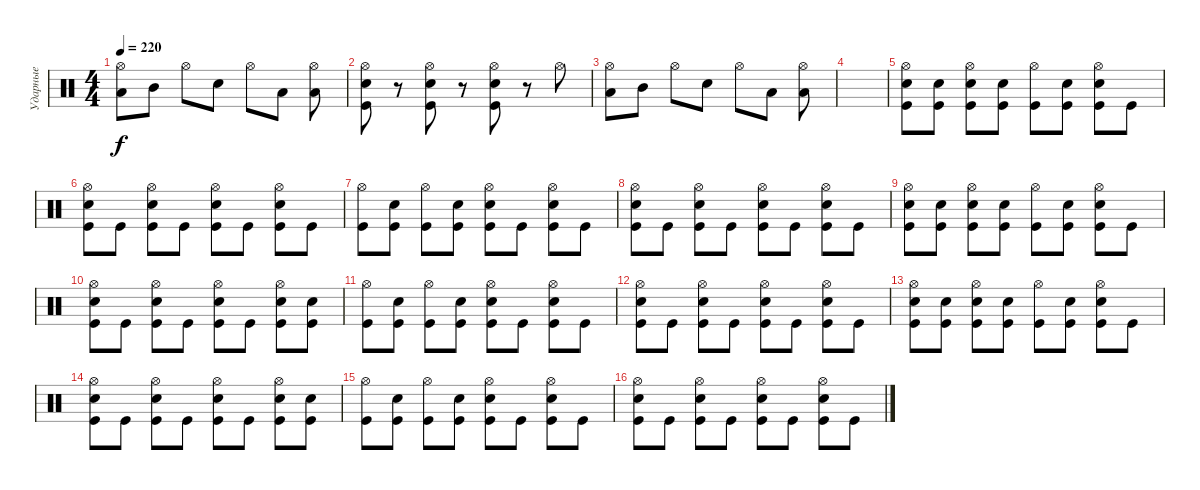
\track ("Ударные" "Ударные") {instrument percussion}
\staff {score}
\articulation defaults
\ts (4 4)
\tempo 220
\clef neutral
\ks c
("Hi-Hat (open)" "Low Tom (hit)").8{dy f} "Mid Tom (hit)".8 "Hi-Hat (open)".8 "Electric Snare (hit)".8 "Hi-Hat (open)".8 "Low Floor Tom (hit)".8 ("Hi-Hat (open)" "Low Tom (hit)").8 |
("Hi-Hat (open)" "Electric Snare (hit)" "Kick (hit)").8 r.8 ("Hi-Hat (open)" "Electric Snare (hit)" "Kick (hit)").8 r.8 ("Hi-Hat (open)" "Electric Snare (hit)" "Kick (hit)").8 r.8 "Hi-Hat (open)".8 |
("Hi-Hat (open)" "Low Tom (hit)").8 "Mid Tom (hit)".8 "Hi-Hat (open)".8 "Electric Snare (hit)".8 "Hi-Hat (open)".8 "Low Floor Tom (hit)".8 ("Hi-Hat (open)" "Low Tom (hit)").8 |
|
("Hi-Hat (open)" "Kick (hit)" "Electric Snare (hit)").8 ("Kick (hit)" "Electric Snare (hit)").8 ("Hi-Hat (open)" "Kick (hit)" "Electric Snare (hit)").8 ("Kick (hit)" "Electric Snare (hit)").8 ("Hi-Hat (open)" "Kick (hit)").8 ("Kick (hit)" "Electric Snare (hit)").8 ("Hi-Hat (open)" "Kick (hit)" "Electric Snare (hit)").8 "Kick (hit)".8 |
("Hi-Hat (open)" "Kick (hit)" "Electric Snare (hit)").8 "Kick (hit)".8 ("Hi-Hat (open)" "Kick (hit)" "Electric Snare (hit)").8 "Kick (hit)".8 ("Hi-Hat (open)" "Kick (hit)" "Electric Snare (hit)").8 "Kick (hit)".8 ("Hi-Hat (open)" "Kick (hit)" "Electric Snare (hit)").8 "Kick (hit)".8 |
("Hi-Hat (open)" "Kick (hit)").8 ("Kick (hit)" "Electric Snare (hit)").8 ("Hi-Hat (open)" "Kick (hit)").8 ("Kick (hit)" "Electric Snare (hit)").8 ("Hi-Hat (open)" "Kick (hit)" "Electric Snare (hit)").8 "Kick (hit)".8 ("Hi-Hat (open)" "Kick (hit)" "Electric Snare (hit)").8 "Kick (hit)".8 |
("Hi-Hat (open)" "Kick (hit)" "Electric Snare (hit)").8 "Kick (hit)".8 ("Hi-Hat (open)" "Kick (hit)" "Electric Snare (hit)").8 "Kick (hit)".8 ("Hi-Hat (open)" "Kick (hit)" "Electric Snare (hit)").8 "Kick (hit)".8 ("Hi-Hat (open)" "Kick (hit)" "Electric Snare (hit)").8 "Kick (hit)".8 |
("Hi-Hat (open)" "Kick (hit)" "Electric Snare (hit)").8 ("Kick (hit)" "Electric Snare (hit)").8 ("Hi-Hat (open)" "Kick (hit)" "Electric Snare (hit)").8 ("Kick (hit)" "Electric Snare (hit)").8 ("Hi-Hat (open)" "Kick (hit)").8 ("Kick (hit)" "Electric Snare (hit)").8 ("Hi-Hat (open)" "Kick (hit)" "Electric Snare (hit)").8 "Kick (hit)".8 |
("Hi-Hat (open)" "Kick (hit)" "Electric Snare (hit)").8 "Kick (hit)".8 ("Hi-Hat (open)" "Kick (hit)" "Electric Snare (hit)").8 "Kick (hit)".8 ("Hi-Hat (open)" "Kick (hit)" "Electric Snare (hit)").8 "Kick (hit)".8 ("Hi-Hat (open)" "Kick (hit)" "Electric Snare (hit)").8 ("Kick (hit)" "Electric Snare (hit)").8 |
("Hi-Hat (open)" "Kick (hit)").8 ("Kick (hit)" "Electric Snare (hit)").8 ("Hi-Hat (open)" "Kick (hit)").8 ("Kick (hit)" "Electric Snare (hit)").8 ("Hi-Hat (open)" "Kick (hit)" "Electric Snare (hit)").8 "Kick (hit)".8 ("Hi-Hat (open)" "Kick (hit)" "Electric Snare (hit)").8 "Kick (hit)".8 |
("Hi-Hat (open)" "Kick (hit)" "Electric Snare (hit)").8 "Kick (hit)".8 ("Hi-Hat (open)" "Kick (hit)" "Electric Snare (hit)").8 "Kick (hit)".8 ("Hi-Hat (open)" "Kick (hit)" "Electric Snare (hit)").8 "Kick (hit)".8 ("Hi-Hat (open)" "Kick (hit)" "Electric Snare (hit)").8 "Kick (hit)".8 |
("Hi-Hat (open)" "Kick (hit)" "Electric Snare (hit)").8 ("Kick (hit)" "Electric Snare (hit)").8 ("Hi-Hat (open)" "Kick (hit)" "Electric Snare (hit)").8 ("Kick (hit)" "Electric Snare (hit)").8 ("Hi-Hat (open)" "Kick (hit)").8 ("Kick (hit)" "Electric Snare (hit)").8 ("Hi-Hat (open)" "Kick (hit)" "Electric Snare (hit)").8 "Kick (hit)".8 |
("Hi-Hat (open)" "Kick (hit)" "Electric Snare (hit)").8 "Kick (hit)".8 ("Hi-Hat (open)" "Kick (hit)" "Electric Snare (hit)").8 "Kick (hit)".8 ("Hi-Hat (open)" "Kick (hit)" "Electric Snare (hit)").8 "Kick (hit)".8 ("Hi-Hat (open)" "Kick (hit)" "Electric Snare (hit)").8 ("Kick (hit)" "Electric Snare (hit)").8 |
("Hi-Hat (open)" "Kick (hit)").8 ("Kick (hit)" "Electric Snare (hit)").8 ("Hi-Hat (open)" "Kick (hit)").8 ("Kick (hit)" "Electric Snare (hit)").8 ("Hi-Hat (open)" "Kick (hit)" "Electric Snare (hit)").8 "Kick (hit)".8 ("Hi-Hat (open)" "Kick (hit)" "Electric Snare (hit)").8 "Kick (hit)".8 |
("Hi-Hat (open)" "Kick (hit)" "Electric Snare (hit)").8 "Kick (hit)".8 ("Hi-Hat (open)" "Kick (hit)" "Electric Snare (hit)").8 "Kick (hit)".8 ("Hi-Hat (open)" "Kick (hit)" "Electric Snare (hit)").8 "Kick (hit)".8 ("Hi-Hat (open)" "Kick (hit)" "Electric Snare (hit)").8 "Kick (hit)".8
